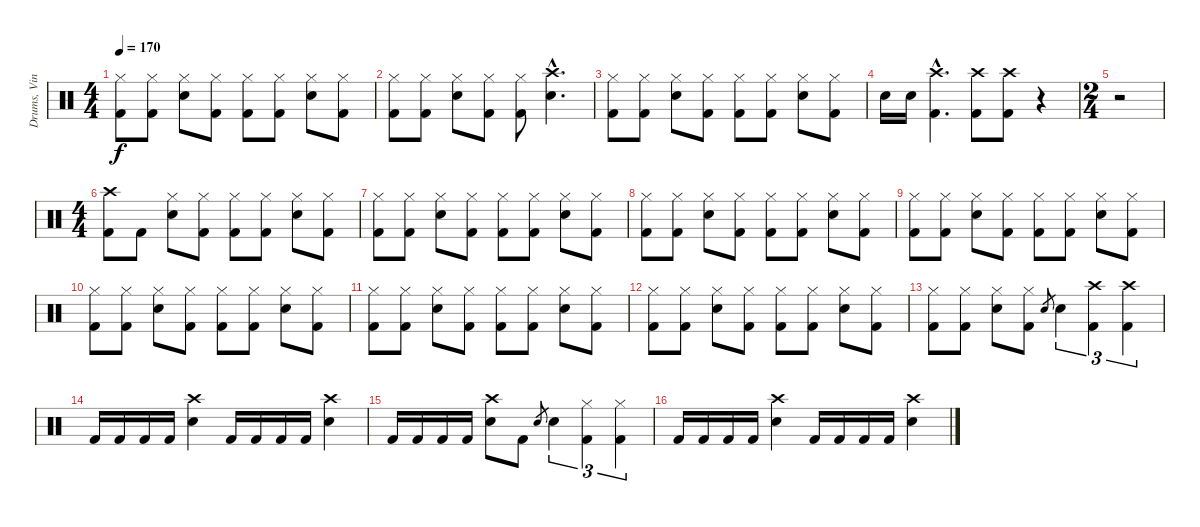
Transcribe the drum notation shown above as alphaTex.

\track ("Drums, Vinnie" "Drums, Vin") {instrument percussion}
\staff {score}
\articulation defaults
\ts (4 4)
\tempo 170
\clef neutral
\ks c
("Hi-Hat (closed)" "Kick (hit) 2").8{dy f} ("Hi-Hat (closed)" "Kick (hit) 2").8 ("Hi-Hat (closed)" "Electric Snare (hit)").8 ("Hi-Hat (closed)" "Kick (hit) 2").8 ("Hi-Hat (closed)" "Kick (hit) 2").8 ("Hi-Hat (closed)" "Kick (hit) 2").8 ("Hi-Hat (closed)" "Electric Snare (hit)").8 ("Hi-Hat (closed)" "Kick (hit) 2").8 |
("Hi-Hat (closed)" "Kick (hit) 2").8 ("Hi-Hat (closed)" "Kick (hit) 2").8 ("Hi-Hat (closed)" "Electric Snare (hit)").8 ("Hi-Hat (closed)" "Kick (hit) 2").8 ("Hi-Hat (closed)" "Kick (hit) 2").8 ("Crash high (hit)"{hac} "Electric Snare (hit)"{hac}).4{d} |
("Hi-Hat (closed)" "Kick (hit) 2").8 ("Hi-Hat (closed)" "Kick (hit) 2").8 ("Hi-Hat (closed)" "Electric Snare (hit)").8 ("Hi-Hat (closed)" "Kick (hit) 2").8 ("Hi-Hat (closed)" "Kick (hit) 2").8 ("Hi-Hat (closed)" "Kick (hit) 2").8 ("Hi-Hat (closed)" "Electric Snare (hit)").8 ("Hi-Hat (closed)" "Kick (hit) 2").8 |
"Electric Snare (hit)".16 "Electric Snare (hit)".16 ("Crash high (hit)"{hac} "Kick (hit) 2"{hac}).4{d} ("Crash high (hit)" "Kick (hit) 2").8 ("Crash high (hit)" "Kick (hit) 2").8 r.4 |
\ts (2 4)
r.2 |
\ts (4 4)
("Crash high (hit)" "Kick (hit) 2").8 "Kick (hit) 2".8 ("Hi-Hat (closed)" "Electric Snare (hit)").8 ("Hi-Hat (closed)" "Kick (hit) 2").8 ("Hi-Hat (closed)" "Kick (hit) 2").8 ("Hi-Hat (closed)" "Kick (hit) 2").8 ("Hi-Hat (closed)" "Electric Snare (hit)").8 ("Hi-Hat (closed)" "Kick (hit) 2").8 |
("Hi-Hat (closed)" "Kick (hit) 2").8 ("Hi-Hat (closed)" "Kick (hit) 2").8 ("Hi-Hat (closed)" "Electric Snare (hit)").8 ("Hi-Hat (closed)" "Kick (hit) 2").8 ("Hi-Hat (closed)" "Kick (hit) 2").8 ("Hi-Hat (closed)" "Kick (hit) 2").8 ("Hi-Hat (closed)" "Electric Snare (hit)").8 ("Hi-Hat (closed)" "Kick (hit) 2").8 |
("Hi-Hat (closed)" "Kick (hit) 2").8 ("Hi-Hat (closed)" "Kick (hit) 2").8 ("Hi-Hat (closed)" "Electric Snare (hit)").8 ("Hi-Hat (closed)" "Kick (hit) 2").8 ("Hi-Hat (closed)" "Kick (hit) 2").8 ("Hi-Hat (closed)" "Kick (hit) 2").8 ("Hi-Hat (closed)" "Electric Snare (hit)").8 ("Hi-Hat (closed)" "Kick (hit) 2").8 |
("Hi-Hat (closed)" "Kick (hit) 2").8 ("Hi-Hat (closed)" "Kick (hit) 2").8 ("Hi-Hat (closed)" "Electric Snare (hit)").8 ("Hi-Hat (closed)" "Kick (hit) 2").8 ("Hi-Hat (closed)" "Kick (hit) 2").8 ("Hi-Hat (closed)" "Kick (hit) 2").8 ("Hi-Hat (closed)" "Electric Snare (hit)").8 ("Hi-Hat (closed)" "Kick (hit) 2").8 |
("Hi-Hat (closed)" "Kick (hit) 2").8 ("Hi-Hat (closed)" "Kick (hit) 2").8 ("Hi-Hat (closed)" "Electric Snare (hit)").8 ("Hi-Hat (closed)" "Kick (hit) 2").8 ("Hi-Hat (closed)" "Kick (hit) 2").8 ("Hi-Hat (closed)" "Kick (hit) 2").8 ("Hi-Hat (closed)" "Electric Snare (hit)").8 ("Hi-Hat (closed)" "Kick (hit) 2").8 |
("Hi-Hat (closed)" "Kick (hit) 2").8 ("Hi-Hat (closed)" "Kick (hit) 2").8 ("Hi-Hat (closed)" "Electric Snare (hit)").8 ("Hi-Hat (closed)" "Kick (hit) 2").8 ("Hi-Hat (closed)" "Kick (hit) 2").8 ("Hi-Hat (closed)" "Kick (hit) 2").8 ("Hi-Hat (closed)" "Electric Snare (hit)").8 ("Hi-Hat (closed)" "Kick (hit) 2").8 |
("Hi-Hat (closed)" "Kick (hit) 2").8 ("Hi-Hat (closed)" "Kick (hit) 2").8 ("Hi-Hat (closed)" "Electric Snare (hit)").8 ("Hi-Hat (closed)" "Kick (hit) 2").8 ("Hi-Hat (closed)" "Kick (hit) 2").8 ("Hi-Hat (closed)" "Kick (hit) 2").8 ("Hi-Hat (closed)" "Electric Snare (hit)").8 ("Hi-Hat (closed)" "Kick (hit) 2").8 |
("Hi-Hat (closed)" "Kick (hit) 2").8 ("Hi-Hat (closed)" "Kick (hit) 2").8 ("Hi-Hat (closed)" "Electric Snare (hit)").8 ("Hi-Hat (closed)" "Kick (hit) 2").8 "Electric Snare (hit)".8{gr} "Electric Snare (hit)".4{tu (3 2)} ("Crash high (hit)" "Kick (hit) 2").4{tu (3 2)} ("Crash high (hit)" "Kick (hit) 2").4{tu (3 2)} |
"Kick (hit) 2".16 "Kick (hit) 2".16 "Kick (hit) 2".16 "Kick (hit) 2".16 ("Crash high (hit)" "Electric Snare (hit)").4 "Kick (hit) 2".16 "Kick (hit) 2".16 "Kick (hit) 2".16 "Kick (hit) 2".16 ("Crash high (hit)" "Electric Snare (hit)").4 |
"Kick (hit) 2".16 "Kick (hit) 2".16 "Kick (hit) 2".16 "Kick (hit) 2".16 ("Crash high (hit)" "Electric Snare (hit)").8 "Kick (hit) 2".8 "Electric Snare (hit)".8{gr} "Electric Snare (hit)".4{tu (3 2)} ("Hi-Hat (closed)" "Kick (hit) 2").4{tu (3 2)} ("Hi-Hat (closed)" "Kick (hit) 2").4{tu (3 2)} |
"Kick (hit) 2".16 "Kick (hit) 2".16 "Kick (hit) 2".16 "Kick (hit) 2".16 ("Crash high (hit)" "Electric Snare (hit)").4 "Kick (hit) 2".16 "Kick (hit) 2".16 "Kick (hit) 2".16 "Kick (hit) 2".16 ("Crash high (hit)" "Electric Snare (hit)").4
